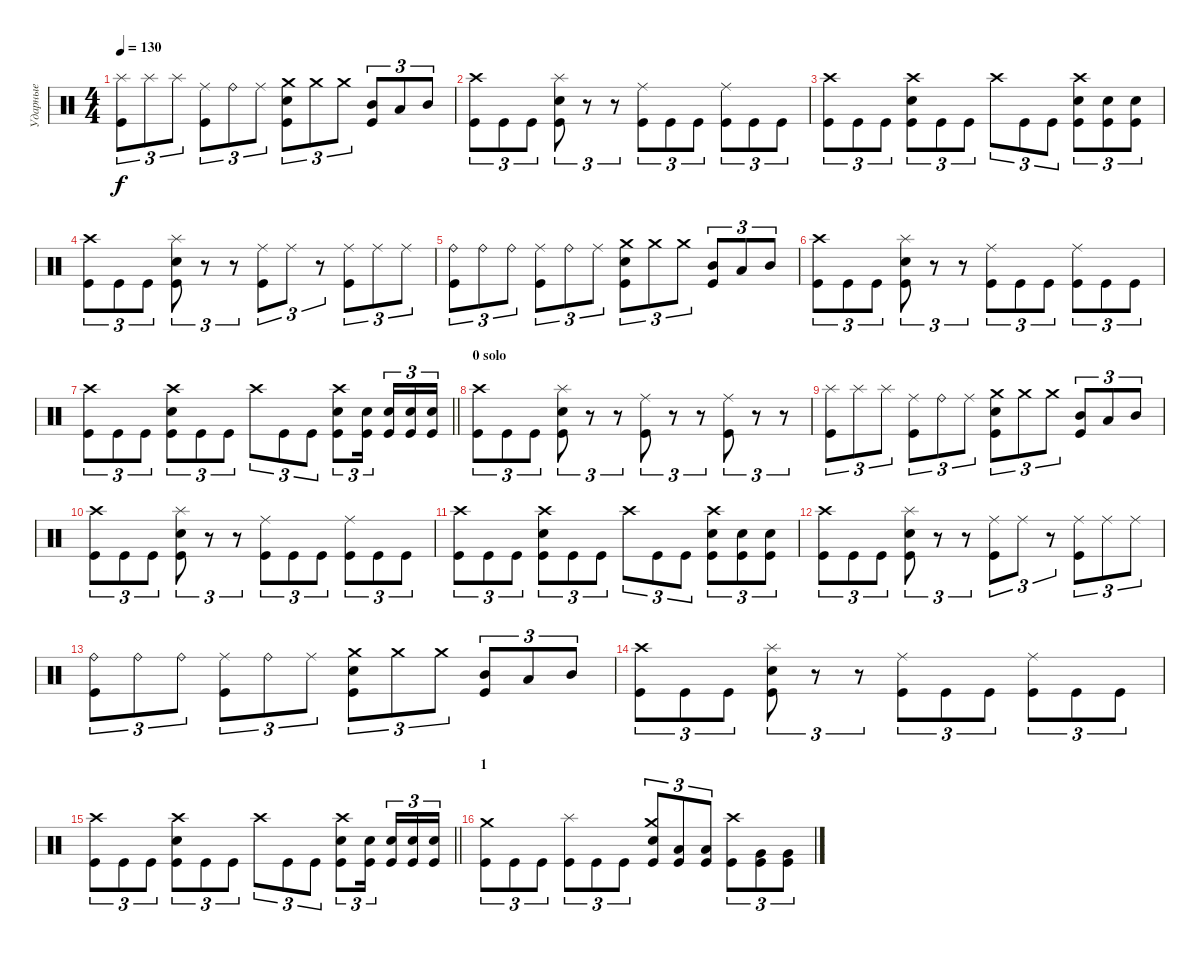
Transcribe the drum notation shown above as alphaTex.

\track ("Ударные" "Ударные") {instrument percussion}
\staff {score}
\articulation defaults
\ts (4 4)
\tempo 130
\clef neutral
\ks c
("Splash (hit)" "Kick (hit)").8{tu (3 2) dy f} "Splash (hit)".8{tu (3 2)} "Splash (hit)".8{tu (3 2)} ("Ride (middle)" "Kick (hit)").8{tu (3 2)} "Ride (bell)".8{tu (3 2)} "Ride (middle)".8{tu (3 2)} ("Crash medium (hit)" "Electric Snare (hit)" "Kick (hit)").8{tu (3 2)} "Crash medium (hit)".8{tu (3 2)} "Crash medium (hit)".8{tu (3 2)} ("Mid Tom (hit)" "Kick (hit)").8{tu (3 2)} "Low Tom (hit)".8{tu (3 2)} "Mid Tom (hit)".8{tu (3 2)} |
("Crash high (hit)" "Kick (hit)").8{tu (3 2)} "Kick (hit)".8{tu (3 2)} "Kick (hit)".8{tu (3 2)} ("Splash (hit)" "Electric Snare (hit)" "Kick (hit)").8{tu (3 2)} r.8{tu (3 2)} r.8{tu (3 2)} ("Ride (middle)" "Kick (hit)").8{tu (3 2)} "Kick (hit)".8{tu (3 2)} "Kick (hit)".8{tu (3 2)} ("Ride (middle)" "Kick (hit)").8{tu (3 2)} "Kick (hit)".8{tu (3 2)} "Kick (hit)".8{tu (3 2)} |
("Crash high (hit)" "Kick (hit)").8{tu (3 2)} "Kick (hit)".8{tu (3 2)} "Kick (hit)".8{tu (3 2)} ("Crash high (hit)" "Electric Snare (hit)" "Kick (hit)").8{tu (3 2)} "Kick (hit)".8{tu (3 2)} "Kick (hit)".8{tu (3 2)} "Crash high (hit)".8{tu (3 2)} "Kick (hit)".8{tu (3 2)} "Kick (hit)".8{tu (3 2)} ("Crash high (hit)" "Electric Snare (hit)" "Kick (hit)").8{tu (3 2)} ("Electric Snare (hit)" "Kick (hit)").8{tu (3 2)} ("Electric Snare (hit)" "Kick (hit)").8{tu (3 2)} |
("Crash high (hit)" "Kick (hit)").8{tu (3 2)} "Kick (hit)".8{tu (3 2)} "Kick (hit)".8{tu (3 2)} ("Splash (hit)" "Electric Snare (hit)" "Kick (hit)").8{tu (3 2)} r.8{tu (3 2)} r.8{tu (3 2)} ("Ride (middle)" "Kick (hit)").8{tu (3 2)} "Ride (middle)".8{tu (3 2)} r.8{tu (3 2)} ("Ride (middle)" "Kick (hit)").8{tu (3 2)} "Ride (middle)".8{tu (3 2)} "Ride (middle)".8{tu (3 2)} |
("Ride (bell)" "Kick (hit)").8{tu (3 2)} "Ride (bell)".8{tu (3 2)} "Ride (bell)".8{tu (3 2)} ("Ride (middle)" "Kick (hit)").8{tu (3 2)} "Ride (bell)".8{tu (3 2)} "Ride (middle)".8{tu (3 2)} ("Crash medium (hit)" "Electric Snare (hit)" "Kick (hit)").8{tu (3 2)} "Crash medium (hit)".8{tu (3 2)} "Crash medium (hit)".8{tu (3 2)} ("Mid Tom (hit)" "Kick (hit)").8{tu (3 2)} "Low Tom (hit)".8{tu (3 2)} "Mid Tom (hit)".8{tu (3 2)} |
("Crash high (hit)" "Kick (hit)").8{tu (3 2)} "Kick (hit)".8{tu (3 2)} "Kick (hit)".8{tu (3 2)} ("Splash (hit)" "Electric Snare (hit)" "Kick (hit)").8{tu (3 2)} r.8{tu (3 2)} r.8{tu (3 2)} ("Ride (middle)" "Kick (hit)").8{tu (3 2)} "Kick (hit)".8{tu (3 2)} "Kick (hit)".8{tu (3 2)} ("Ride (middle)" "Kick (hit)").8{tu (3 2)} "Kick (hit)".8{tu (3 2)} "Kick (hit)".8{tu (3 2)} |
\barLineRight lightlight
("Crash high (hit)" "Kick (hit)").8{tu (3 2)} "Kick (hit)".8{tu (3 2)} "Kick (hit)".8{tu (3 2)} ("Crash high (hit)" "Electric Snare (hit)" "Kick (hit)").8{tu (3 2)} "Kick (hit)".8{tu (3 2)} "Kick (hit)".8{tu (3 2)} "Crash high (hit)".8{tu (3 2)} "Kick (hit)".8{tu (3 2)} "Kick (hit)".8{tu (3 2)} ("Crash high (hit)" "Electric Snare (hit)" "Kick (hit)").8{tu (3 2)} ("Electric Snare (hit)" "Kick (hit)").16{tu (3 2) beam splitsecondary} ("Electric Snare (hit)" "Kick (hit)").16{tu (3 2)} ("Electric Snare (hit)" "Kick (hit)").16{tu (3 2)} ("Electric Snare (hit)" "Kick (hit)").16{tu (3 2)} |
\section ("" "0 solo")
("Crash high (hit)" "Kick (hit)").8{tu (3 2)} "Kick (hit)".8{tu (3 2)} "Kick (hit)".8{tu (3 2)} ("Splash (hit)" "Electric Snare (hit)" "Kick (hit)").8{tu (3 2)} r.8{tu (3 2)} r.8{tu (3 2)} ("Ride (middle)" "Kick (hit)").8{tu (3 2)} r.8{tu (3 2)} r.8{tu (3 2)} ("Ride (middle)" "Kick (hit)").8{tu (3 2)} r.8{tu (3 2)} r.8{tu (3 2)} |
("Splash (hit)" "Kick (hit)").8{tu (3 2)} "Splash (hit)".8{tu (3 2)} "Splash (hit)".8{tu (3 2)} ("Ride (middle)" "Kick (hit)").8{tu (3 2)} "Ride (bell)".8{tu (3 2)} "Ride (middle)".8{tu (3 2)} ("Crash medium (hit)" "Electric Snare (hit)" "Kick (hit)").8{tu (3 2)} "Crash medium (hit)".8{tu (3 2)} "Crash medium (hit)".8{tu (3 2)} ("Mid Tom (hit)" "Kick (hit)").8{tu (3 2)} "Low Tom (hit)".8{tu (3 2)} "Mid Tom (hit)".8{tu (3 2)} |
("Crash high (hit)" "Kick (hit)").8{tu (3 2)} "Kick (hit)".8{tu (3 2)} "Kick (hit)".8{tu (3 2)} ("Splash (hit)" "Electric Snare (hit)" "Kick (hit)").8{tu (3 2)} r.8{tu (3 2)} r.8{tu (3 2)} ("Ride (middle)" "Kick (hit)").8{tu (3 2)} "Kick (hit)".8{tu (3 2)} "Kick (hit)".8{tu (3 2)} ("Ride (middle)" "Kick (hit)").8{tu (3 2)} "Kick (hit)".8{tu (3 2)} "Kick (hit)".8{tu (3 2)} |
("Crash high (hit)" "Kick (hit)").8{tu (3 2)} "Kick (hit)".8{tu (3 2)} "Kick (hit)".8{tu (3 2)} ("Crash high (hit)" "Electric Snare (hit)" "Kick (hit)").8{tu (3 2)} "Kick (hit)".8{tu (3 2)} "Kick (hit)".8{tu (3 2)} "Crash high (hit)".8{tu (3 2)} "Kick (hit)".8{tu (3 2)} "Kick (hit)".8{tu (3 2)} ("Crash high (hit)" "Electric Snare (hit)" "Kick (hit)").8{tu (3 2)} ("Electric Snare (hit)" "Kick (hit)").8{tu (3 2)} ("Electric Snare (hit)" "Kick (hit)").8{tu (3 2)} |
("Crash high (hit)" "Kick (hit)").8{tu (3 2)} "Kick (hit)".8{tu (3 2)} "Kick (hit)".8{tu (3 2)} ("Splash (hit)" "Electric Snare (hit)" "Kick (hit)").8{tu (3 2)} r.8{tu (3 2)} r.8{tu (3 2)} ("Ride (middle)" "Kick (hit)").8{tu (3 2)} "Ride (middle)".8{tu (3 2)} r.8{tu (3 2)} ("Ride (middle)" "Kick (hit)").8{tu (3 2)} "Ride (middle)".8{tu (3 2)} "Ride (middle)".8{tu (3 2)} |
("Ride (bell)" "Kick (hit)").8{tu (3 2)} "Ride (bell)".8{tu (3 2)} "Ride (bell)".8{tu (3 2)} ("Ride (middle)" "Kick (hit)").8{tu (3 2)} "Ride (bell)".8{tu (3 2)} "Ride (middle)".8{tu (3 2)} ("Crash medium (hit)" "Electric Snare (hit)" "Kick (hit)").8{tu (3 2)} "Crash medium (hit)".8{tu (3 2)} "Crash medium (hit)".8{tu (3 2)} ("Mid Tom (hit)" "Kick (hit)").8{tu (3 2)} "Low Tom (hit)".8{tu (3 2)} "Mid Tom (hit)".8{tu (3 2)} |
("Crash high (hit)" "Kick (hit)").8{tu (3 2)} "Kick (hit)".8{tu (3 2)} "Kick (hit)".8{tu (3 2)} ("Splash (hit)" "Electric Snare (hit)" "Kick (hit)").8{tu (3 2)} r.8{tu (3 2)} r.8{tu (3 2)} ("Ride (middle)" "Kick (hit)").8{tu (3 2)} "Kick (hit)".8{tu (3 2)} "Kick (hit)".8{tu (3 2)} ("Ride (middle)" "Kick (hit)").8{tu (3 2)} "Kick (hit)".8{tu (3 2)} "Kick (hit)".8{tu (3 2)} |
\barLineRight lightlight
("Crash high (hit)" "Kick (hit)").8{tu (3 2)} "Kick (hit)".8{tu (3 2)} "Kick (hit)".8{tu (3 2)} ("Crash high (hit)" "Electric Snare (hit)" "Kick (hit)").8{tu (3 2)} "Kick (hit)".8{tu (3 2)} "Kick (hit)".8{tu (3 2)} "Crash high (hit)".8{tu (3 2)} "Kick (hit)".8{tu (3 2)} "Kick (hit)".8{tu (3 2)} ("Crash high (hit)" "Electric Snare (hit)" "Kick (hit)").8{tu (3 2)} ("Electric Snare (hit)" "Kick (hit)").16{tu (3 2) beam splitsecondary} ("Electric Snare (hit)" "Kick (hit)").16{tu (3 2)} ("Electric Snare (hit)" "Kick (hit)").16{tu (3 2)} ("Electric Snare (hit)" "Kick (hit)").16{tu (3 2)} |
\section ("" "1")
("Crash medium (hit)" "Kick (hit)").8{tu (3 2)} "Kick (hit)".8{tu (3 2)} "Kick (hit)".8{tu (3 2)} ("Splash (hit)" "Kick (hit)").8{tu (3 2)} "Kick (hit)".8{tu (3 2)} "Kick (hit)".8{tu (3 2)} ("Crash medium (hit)" "Electric Snare (hit)" "Kick (hit)").8{tu (3 2)} ("Low Tom (hit)" "Kick (hit)").8{tu (3 2)} ("Low Tom (hit)" "Kick (hit)").8{tu (3 2)} ("Crash high (hit)" "Kick (hit)").8{tu (3 2)} ("Very Low Tom (hit)" "Kick (hit)").8{tu (3 2)} ("Very Low Tom (hit)" "Kick (hit)").8{tu (3 2)}
